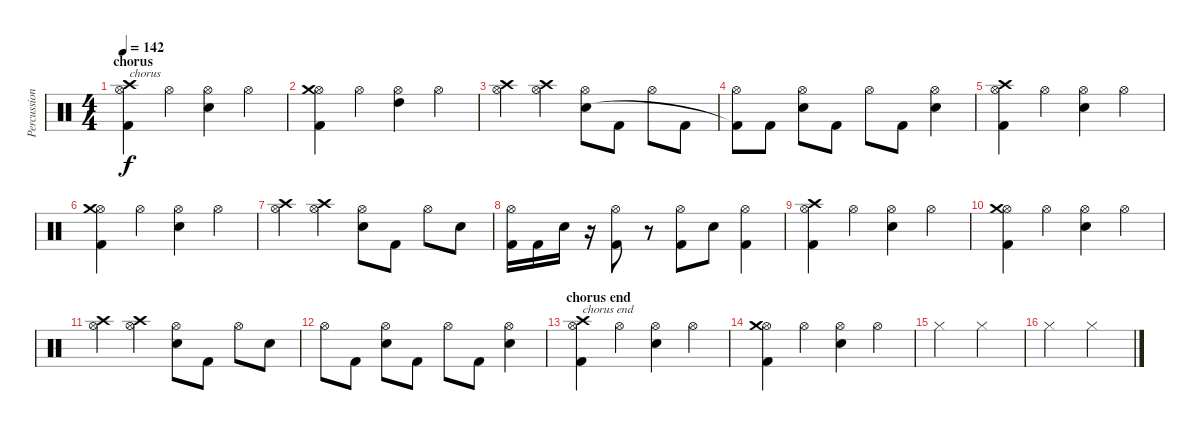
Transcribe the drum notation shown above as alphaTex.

\track ("Percussion" "Percussion") {instrument percussion}
\staff {score}
\articulation defaults
\ts (4 4)
\section ("" "chorus")
\tempo 142
\clef neutral
\ks c
("Hi-Hat (open)" "Crash high (hit)" "Kick (hit) 2").4{txt "chorus" dy f} "Hi-Hat (open)".4 ("Hi-Hat (open)" "Snare (hit) 2").4 "Hi-Hat (open)".4 |
("Hi-Hat (open)" "Crash medium (hit)" "Kick (hit) 2").4 "Hi-Hat (open)".4 ("Hi-Hat (open)" "High Tom (hit)").4 "Hi-Hat (open)".4 |
("Hi-Hat (open)" "Crash high (hit)").4 ("Hi-Hat (open)" "Crash high (hit)").4 ("Hi-Hat (open)" "Snare (hit) 2").8 "Kick (hit) 2".8 "Hi-Hat (open)".8 "Kick (hit) 2".8 |
("Hi-Hat (open)" "Kick (hit) 2"{t}).8 "Kick (hit) 2".8 ("Hi-Hat (open)" "Snare (hit) 2").8 "Kick (hit) 2".8 "Hi-Hat (open)".8 "Kick (hit) 2".8 ("Hi-Hat (open)" "Snare (hit) 2").4 |
("Hi-Hat (open)" "Crash high (hit)" "Kick (hit) 2").4 "Hi-Hat (open)".4 ("Hi-Hat (open)" "Snare (hit) 2").4 "Hi-Hat (open)".4 |
("Hi-Hat (open)" "Crash medium (hit)" "Kick (hit) 2").4 "Hi-Hat (open)".4 ("Hi-Hat (open)" "Snare (hit) 2").4 "Hi-Hat (open)".4 |
("Hi-Hat (open)" "Crash high (hit)").4 ("Hi-Hat (open)" "Crash high (hit)").4 ("Hi-Hat (open)" "Snare (hit) 2").8 "Kick (hit) 2".8 "Hi-Hat (open)".8 "Snare (hit) 2".8 |
("Hi-Hat (open)" "Kick (hit) 2").16 "Kick (hit) 2".16 "Snare (hit) 2".16 r.16 ("Hi-Hat (open)" "Kick (hit) 2").8 r.8 ("Hi-Hat (open)" "Kick (hit) 2").8 "Snare (hit) 2".8 ("Hi-Hat (open)" "Kick (hit) 2").4 |
("Hi-Hat (open)" "Crash high (hit)" "Kick (hit) 2").4 "Hi-Hat (open)".4 ("Hi-Hat (open)" "Snare (hit) 2").4 "Hi-Hat (open)".4 |
("Hi-Hat (open)" "Crash medium (hit)" "Kick (hit) 2").4 "Hi-Hat (open)".4 ("Hi-Hat (open)" "Snare (hit) 2").4 "Hi-Hat (open)".4 |
("Hi-Hat (open)" "Crash high (hit)").4 ("Hi-Hat (open)" "Crash high (hit)").4 ("Hi-Hat (open)" "Snare (hit) 2").8 "Kick (hit) 2".8 "Hi-Hat (open)".8 "Snare (hit) 2".8 |
"Hi-Hat (open)".8 "Kick (hit) 2".8 ("Hi-Hat (open)" "Snare (hit) 2").8 "Kick (hit) 2".8 "Hi-Hat (open)".8 "Kick (hit) 2".8 ("Hi-Hat (open)" "Snare (hit) 2").4 |
\section ("" "chorus end")
("Hi-Hat (open)" "Crash high (hit)" "Kick (hit) 2").4{txt "chorus end"} "Hi-Hat (open)".4 ("Hi-Hat (open)" "Snare (hit) 2").4 "Hi-Hat (open)".4 |
("Hi-Hat (open)" "Crash medium (hit)" "Kick (hit) 2").4 "Hi-Hat (open)".4 ("Hi-Hat (open)" "Snare (hit) 2").4 "Hi-Hat (open)".4 |
"Hi-Hat (closed)".2 "Hi-Hat (closed)".2 |
"Hi-Hat (closed)".2 "Hi-Hat (closed)".2
